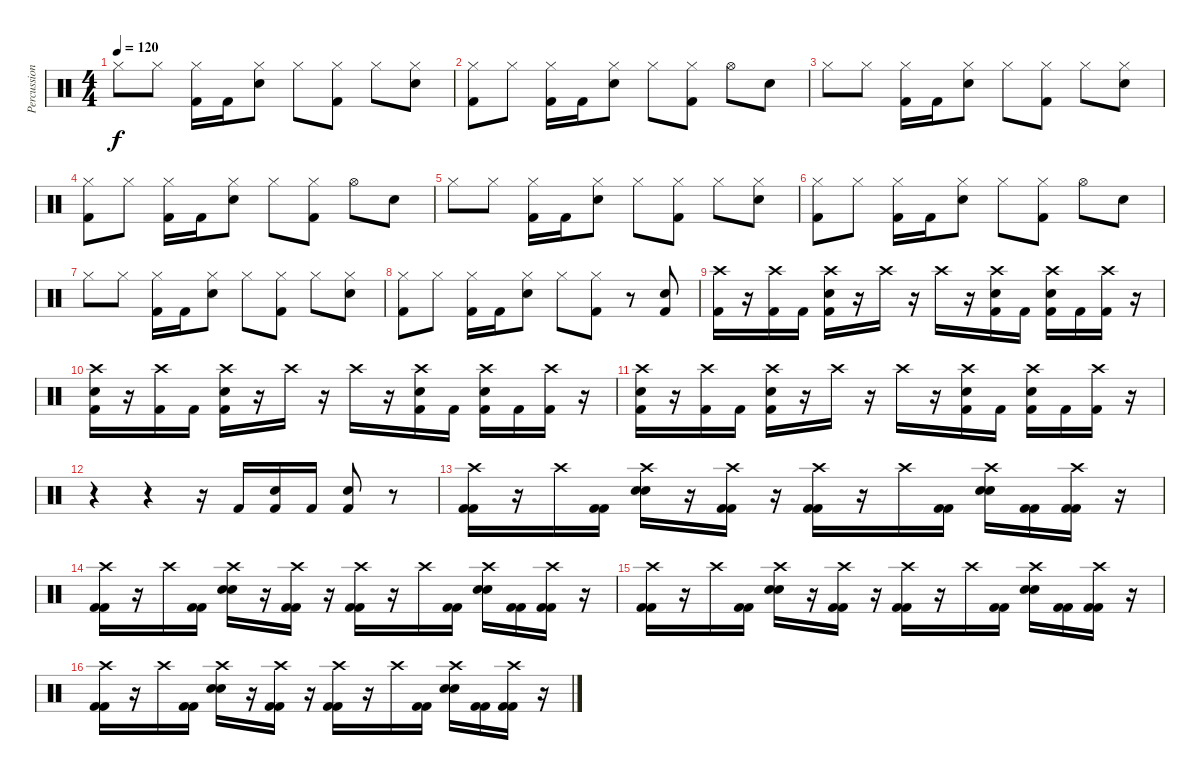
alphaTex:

\track ("Percussions" "Percussion") {instrument percussion}
\staff {score}
\articulation defaults
\ts (4 4)
\tempo 120
\clef neutral
\ks c "Hi-Hat (closed)".8{dy f} "Hi-Hat (closed)".8
("Hi-Hat (closed)" "Kick (hit) 2").16 "Kick (hit) 2".16 ("Hi-Hat (closed)" "Electric Snare (hit)").8 "Hi-Hat (closed)".8 ("Hi-Hat (closed)" "Kick (hit) 2").8 "Hi-Hat (closed)".8 ("Hi-Hat (closed)" "Electric Snare (hit)").8 |
("Hi-Hat (closed)" "Kick (hit) 2").8 "Hi-Hat (closed)".8 ("Hi-Hat (closed)" "Kick (hit) 2").16 "Kick (hit) 2".16 ("Hi-Hat (closed)" "Electric Snare (hit)").8 "Hi-Hat (closed)".8 ("Hi-Hat (closed)" "Kick (hit) 2").8 "Hi-Hat (open)".8 "Electric Snare (hit)".8 |
"Hi-Hat (closed)".8 "Hi-Hat (closed)".8 ("Hi-Hat (closed)" "Kick (hit) 2").16 "Kick (hit) 2".16 ("Hi-Hat (closed)" "Electric Snare (hit)").8 "Hi-Hat (closed)".8 ("Hi-Hat (closed)" "Kick (hit) 2").8 "Hi-Hat (closed)".8 ("Hi-Hat (closed)" "Electric Snare (hit)").8 |
("Hi-Hat (closed)" "Kick (hit) 2").8 "Hi-Hat (closed)".8 ("Hi-Hat (closed)" "Kick (hit) 2").16 "Kick (hit) 2".16 ("Hi-Hat (closed)" "Electric Snare (hit)").8 "Hi-Hat (closed)".8 ("Hi-Hat (closed)" "Kick (hit) 2").8 "Hi-Hat (open)".8 "Electric Snare (hit)".8 |
"Hi-Hat (closed)".8 "Hi-Hat (closed)".8 ("Hi-Hat (closed)" "Kick (hit) 2").16 "Kick (hit) 2".16 ("Hi-Hat (closed)" "Electric Snare (hit)").8 "Hi-Hat (closed)".8 ("Hi-Hat (closed)" "Kick (hit) 2").8 "Hi-Hat (closed)".8 ("Hi-Hat (closed)" "Electric Snare (hit)").8 |
("Hi-Hat (closed)" "Kick (hit) 2").8 "Hi-Hat (closed)".8 ("Hi-Hat (closed)" "Kick (hit) 2").16 "Kick (hit) 2".16 ("Hi-Hat (closed)" "Electric Snare (hit)").8 "Hi-Hat (closed)".8 ("Hi-Hat (closed)" "Kick (hit) 2").8 "Hi-Hat (open)".8 "Electric Snare (hit)".8 |
"Hi-Hat (closed)".8 "Hi-Hat (closed)".8 ("Hi-Hat (closed)" "Kick (hit) 2").16 "Kick (hit) 2".16 ("Hi-Hat (closed)" "Electric Snare (hit)").8 "Hi-Hat (closed)".8 ("Hi-Hat (closed)" "Kick (hit) 2").8 "Hi-Hat (closed)".8 ("Hi-Hat (closed)" "Electric Snare (hit)").8 |
("Hi-Hat (closed)" "Kick (hit) 2").8 "Hi-Hat (closed)".8 ("Hi-Hat (closed)" "Kick (hit) 2").16 "Kick (hit) 2".16 ("Hi-Hat (closed)" "Electric Snare (hit)").8 "Hi-Hat (closed)".8 ("Hi-Hat (closed)" "Kick (hit) 2").8 r.8 ("Electric Snare (hit)" "Kick (hit) 2").8 |
("Crash high (hit)" "Kick (hit) 2").16 r.16 ("Crash high (hit)" "Kick (hit) 2").16 "Kick (hit) 2".16 ("Crash high (hit)" "Electric Snare (hit)" "Kick (hit) 2").16 r.16 "Crash high (hit)".16 r.16 "Crash high (hit)".16 r.16 ("Crash high (hit)" "Electric Snare (hit)" "Kick (hit) 2").16 "Kick (hit) 2".16 ("Crash high (hit)" "Electric Snare (hit)" "Kick (hit) 2").16 "Kick (hit) 2".16 ("Crash high (hit)" "Kick (hit) 2").16 r.16 |
("Crash high (hit)" "Electric Snare (hit)" "Kick (hit) 2").16 r.16 ("Crash high (hit)" "Kick (hit) 2").16 "Kick (hit) 2".16 ("Crash high (hit)" "Electric Snare (hit)" "Kick (hit) 2").16 r.16 "Crash high (hit)".16 r.16 "Crash high (hit)".16 r.16 ("Crash high (hit)" "Electric Snare (hit)" "Kick (hit) 2").16 "Kick (hit) 2".16 ("Crash high (hit)" "Electric Snare (hit)" "Kick (hit) 2").16 "Kick (hit) 2".16 ("Crash high (hit)" "Kick (hit) 2").16 r.16 |
("Crash high (hit)" "Electric Snare (hit)" "Kick (hit) 2").16 r.16 ("Crash high (hit)" "Kick (hit) 2").16 "Kick (hit) 2".16 ("Crash high (hit)" "Electric Snare (hit)" "Kick (hit) 2").16 r.16 "Crash high (hit)".16 r.16 "Crash high (hit)".16 r.16 ("Crash high (hit)" "Electric Snare (hit)" "Kick (hit) 2").16 "Kick (hit) 2".16 ("Crash high (hit)" "Electric Snare (hit)" "Kick (hit) 2").16 "Kick (hit) 2".16 ("Crash high (hit)" "Kick (hit) 2").16 r.16 |
r.4 r.4 r.16 "Kick (hit) 2".16 ("Kick (hit) 2" "Electric Snare (hit)").16 "Kick (hit) 2".16 ("Kick (hit) 2" "Electric Snare (hit)").8 r.8 |
("Crash high (hit)" "Kick (hit) 2" "Kick (hit) 2").16 r.16 "Crash high (hit)".16 ("Kick (hit) 2" "Kick (hit) 2").16 ("Crash high (hit)" "Electric Snare (hit)" "Electric Snare (hit)").16 r.16 ("Crash high (hit)" "Kick (hit) 2" "Kick (hit) 2").16 r.16 ("Crash high (hit)" "Kick (hit) 2" "Kick (hit) 2").16 r.16 "Crash high (hit)".16 ("Kick (hit) 2" "Kick (hit) 2").16 ("Crash high (hit)" "Electric Snare (hit)" "Electric Snare (hit)").16 ("Kick (hit) 2" "Kick (hit) 2").16 ("Crash high (hit)" "Kick (hit) 2" "Kick (hit) 2").16 r.16 |
("Crash high (hit)" "Kick (hit) 2" "Kick (hit) 2").16 r.16 "Crash high (hit)".16 ("Kick (hit) 2" "Kick (hit) 2").16 ("Crash high (hit)" "Electric Snare (hit)" "Electric Snare (hit)").16 r.16 ("Crash high (hit)" "Kick (hit) 2" "Kick (hit) 2").16 r.16 ("Crash high (hit)" "Kick (hit) 2" "Kick (hit) 2").16 r.16 "Crash high (hit)".16 ("Kick (hit) 2" "Kick (hit) 2").16 ("Crash high (hit)" "Electric Snare (hit)" "Electric Snare (hit)").16 ("Kick (hit) 2" "Kick (hit) 2").16 ("Crash high (hit)" "Kick (hit) 2" "Kick (hit) 2").16 r.16 |
("Crash high (hit)" "Kick (hit) 2" "Kick (hit) 2").16 r.16 "Crash high (hit)".16 ("Kick (hit) 2" "Kick (hit) 2").16 ("Crash high (hit)" "Electric Snare (hit)" "Electric Snare (hit)").16 r.16 ("Crash high (hit)" "Kick (hit) 2" "Kick (hit) 2").16 r.16 ("Crash high (hit)" "Kick (hit) 2" "Kick (hit) 2").16 r.16 "Crash high (hit)".16 ("Kick (hit) 2" "Kick (hit) 2").16 ("Crash high (hit)" "Electric Snare (hit)" "Electric Snare (hit)").16 ("Kick (hit) 2" "Kick (hit) 2").16 ("Crash high (hit)" "Kick (hit) 2" "Kick (hit) 2").16 r.16 |
("Crash high (hit)" "Kick (hit) 2" "Kick (hit) 2").16 r.16 "Crash high (hit)".16 ("Kick (hit) 2" "Kick (hit) 2").16 ("Crash high (hit)" "Electric Snare (hit)" "Electric Snare (hit)").16 r.16 ("Crash high (hit)" "Kick (hit) 2" "Kick (hit) 2").16 r.16 ("Crash high (hit)" "Kick (hit) 2" "Kick (hit) 2").16 r.16 "Crash high (hit)".16 ("Kick (hit) 2" "Kick (hit) 2").16 ("Crash high (hit)" "Electric Snare (hit)" "Electric Snare (hit)").16 ("Kick (hit) 2" "Kick (hit) 2").16 ("Crash high (hit)" "Kick (hit) 2" "Kick (hit) 2").16 r.16
